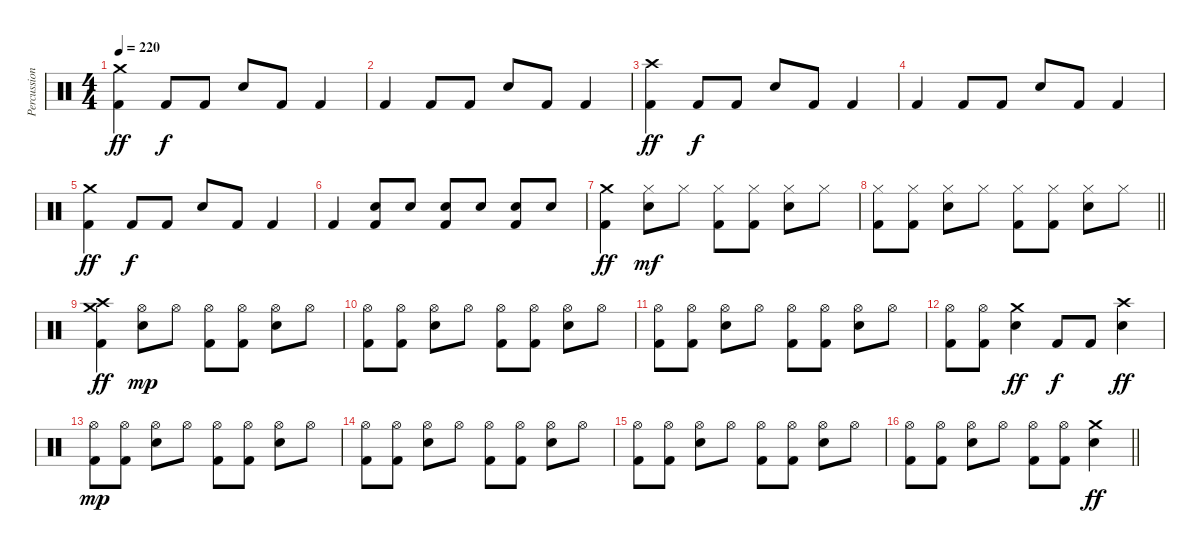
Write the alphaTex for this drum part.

\track ("Percussion" "Percussion") {instrument percussion}
\staff {score}
\articulation defaults
\ts (4 4)
\tempo 220
\clef neutral
\ks c
("Crash medium (hit)" "Kick (hit) 2").4{dy ff} "Kick (hit) 2".8{dy f} "Kick (hit) 2".8 "Electric Snare (hit)".8 "Kick (hit) 2".8 "Kick (hit) 2".4 |
"Kick (hit) 2".4 "Kick (hit) 2".8 "Kick (hit) 2".8 "Electric Snare (hit)".8 "Kick (hit) 2".8 "Kick (hit) 2".4 |
("Crash high (hit)" "Kick (hit) 2").4{dy ff} "Kick (hit) 2".8{dy f} "Kick (hit) 2".8 "Electric Snare (hit)".8 "Kick (hit) 2".8 "Kick (hit) 2".4 |
"Kick (hit) 2".4 "Kick (hit) 2".8 "Kick (hit) 2".8 "Electric Snare (hit)".8 "Kick (hit) 2".8 "Kick (hit) 2".4 |
("Crash medium (hit)" "Kick (hit) 2").4{dy ff} "Kick (hit) 2".8{dy f} "Kick (hit) 2".8 "Electric Snare (hit)".8 "Kick (hit) 2".8 "Kick (hit) 2".4 |
"Kick (hit) 2".4 ("Electric Snare (hit)" "Kick (hit) 2").8 "Electric Snare (hit)".8 ("Electric Snare (hit)" "Kick (hit) 2").8 "Electric Snare (hit)".8 ("Electric Snare (hit)" "Kick (hit) 2").8 "Electric Snare (hit)".8 |
("Crash medium (hit)" "Kick (hit) 2").4{dy ff} ("Hi-Hat (closed)" "Electric Snare (hit)").8{dy mf} "Hi-Hat (closed)".8 ("Hi-Hat (closed)" "Kick (hit) 2").8 ("Hi-Hat (closed)" "Kick (hit) 2").8 ("Hi-Hat (closed)" "Electric Snare (hit)").8 "Hi-Hat (closed)".8 |
\barLineRight lightlight
("Hi-Hat (closed)" "Kick (hit) 2").8 ("Hi-Hat (closed)" "Kick (hit) 2").8 ("Hi-Hat (closed)" "Electric Snare (hit)").8 "Hi-Hat (closed)".8 ("Hi-Hat (closed)" "Kick (hit) 2").8 ("Hi-Hat (closed)" "Kick (hit) 2").8 ("Hi-Hat (closed)" "Electric Snare (hit)").8 "Hi-Hat (closed)".8 |
("Crash high (hit)" "Crash medium (hit)" "Kick (hit) 2").4{dy ff} ("Hi-Hat (open)" "Electric Snare (hit)").8{dy mp} "Hi-Hat (open)".8 ("Hi-Hat (open)" "Kick (hit) 2").8 ("Hi-Hat (open)" "Kick (hit) 2").8 ("Hi-Hat (open)" "Electric Snare (hit)").8 "Hi-Hat (open)".8 |
("Hi-Hat (open)" "Kick (hit) 2").8 ("Hi-Hat (open)" "Kick (hit) 2").8 ("Hi-Hat (open)" "Electric Snare (hit)").8 "Hi-Hat (open)".8 ("Hi-Hat (open)" "Kick (hit) 2").8 ("Hi-Hat (open)" "Kick (hit) 2").8 ("Hi-Hat (open)" "Electric Snare (hit)").8 "Hi-Hat (open)".8 |
("Hi-Hat (open)" "Kick (hit) 2").8 ("Hi-Hat (open)" "Kick (hit) 2").8 ("Hi-Hat (open)" "Electric Snare (hit)").8 "Hi-Hat (open)".8 ("Hi-Hat (open)" "Kick (hit) 2").8 ("Hi-Hat (open)" "Kick (hit) 2").8 ("Hi-Hat (open)" "Electric Snare (hit)").8 "Hi-Hat (open)".8 |
("Hi-Hat (open)" "Kick (hit) 2").8 ("Hi-Hat (open)" "Kick (hit) 2").8 ("Crash medium (hit)" "Electric Snare (hit)").4{dy ff} "Kick (hit) 2".8{dy f} "Kick (hit) 2".8 ("Crash high (hit)" "Electric Snare (hit)").4{dy ff} |
("Hi-Hat (open)" "Kick (hit) 2").8{dy mp} ("Hi-Hat (open)" "Kick (hit) 2").8 ("Hi-Hat (open)" "Electric Snare (hit)").8 "Hi-Hat (open)".8 ("Hi-Hat (open)" "Kick (hit) 2").8 ("Hi-Hat (open)" "Kick (hit) 2").8 ("Hi-Hat (open)" "Electric Snare (hit)").8 "Hi-Hat (open)".8 |
("Hi-Hat (open)" "Kick (hit) 2").8 ("Hi-Hat (open)" "Kick (hit) 2").8 ("Hi-Hat (open)" "Electric Snare (hit)").8 "Hi-Hat (open)".8 ("Hi-Hat (open)" "Kick (hit) 2").8 ("Hi-Hat (open)" "Kick (hit) 2").8 ("Hi-Hat (open)" "Electric Snare (hit)").8 "Hi-Hat (open)".8 |
("Hi-Hat (open)" "Kick (hit) 2").8 ("Hi-Hat (open)" "Kick (hit) 2").8 ("Hi-Hat (open)" "Electric Snare (hit)").8 "Hi-Hat (open)".8 ("Hi-Hat (open)" "Kick (hit) 2").8 ("Hi-Hat (open)" "Kick (hit) 2").8 ("Hi-Hat (open)" "Electric Snare (hit)").8 "Hi-Hat (open)".8 |
\barLineRight lightlight
("Hi-Hat (open)" "Kick (hit) 2").8 ("Hi-Hat (open)" "Kick (hit) 2").8 ("Hi-Hat (open)" "Electric Snare (hit)").8 "Hi-Hat (open)".8 ("Hi-Hat (open)" "Kick (hit) 2").8 ("Hi-Hat (open)" "Kick (hit) 2").8 ("Crash medium (hit)" "Electric Snare (hit)").4{dy ff}
